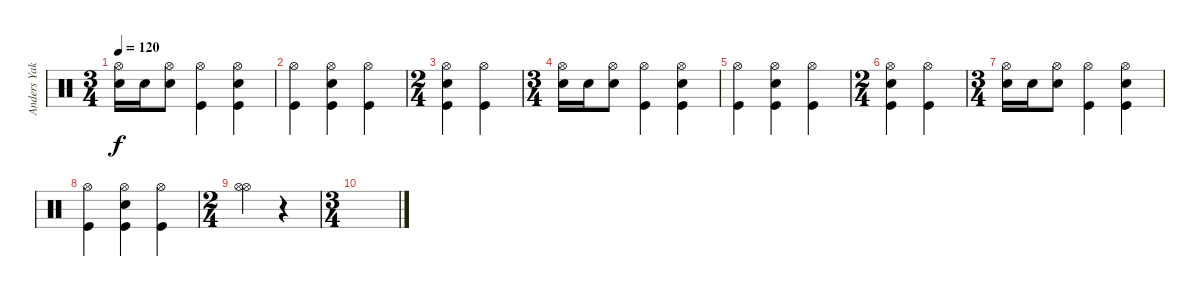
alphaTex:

\track ("Anders Yakobson" "Anders Yak") {instrument percussion}
\staff {score}
\articulation defaults
\ts (3 4)
\tempo 120
\clef neutral
\ks c
("Hi-Hat (open)" "Snare (hit) 2").16{dy f} "Snare (hit) 2".16 ("Hi-Hat (open)" "Snare (hit) 2").8 ("Hi-Hat (open)" "Kick (hit)").4 ("Snare (hit) 2" "Kick (hit)" "Hi-Hat (open)").4 |
("Hi-Hat (open)" "Kick (hit)").4 ("Hi-Hat (open)" "Snare (hit) 2" "Kick (hit)").4 ("Hi-Hat (open)" "Kick (hit)").4 |
\ts (2 4)
("Hi-Hat (open)" "Snare (hit) 2" "Kick (hit)").4 ("Hi-Hat (open)" "Kick (hit)").4 |
\ts (3 4)
("Hi-Hat (open)" "Snare (hit) 2").16 "Snare (hit) 2".16 ("Hi-Hat (open)" "Snare (hit) 2").8 ("Hi-Hat (open)" "Kick (hit)").4 ("Snare (hit) 2" "Kick (hit)" "Hi-Hat (open)").4 |
("Hi-Hat (open)" "Kick (hit)").4 ("Hi-Hat (open)" "Snare (hit) 2" "Kick (hit)").4 ("Hi-Hat (open)" "Kick (hit)").4 |
\ts (2 4)
("Hi-Hat (open)" "Snare (hit) 2" "Kick (hit)").4 ("Hi-Hat (open)" "Kick (hit)").4 |
\ts (3 4)
("Hi-Hat (open)" "Snare (hit) 2").16 "Snare (hit) 2".16 ("Hi-Hat (open)" "Snare (hit) 2").8 ("Hi-Hat (open)" "Kick (hit)").4 ("Snare (hit) 2" "Kick (hit)" "Hi-Hat (open)").4 |
("Hi-Hat (open)" "Kick (hit)").4 ("Hi-Hat (open)" "Snare (hit) 2" "Kick (hit)").4 ("Hi-Hat (open)" "Kick (hit)").4 |
\ts (2 4)
("Hi-Hat (open)" "Hi-Hat (open)").4 r.4 |
\ts (3 4)
